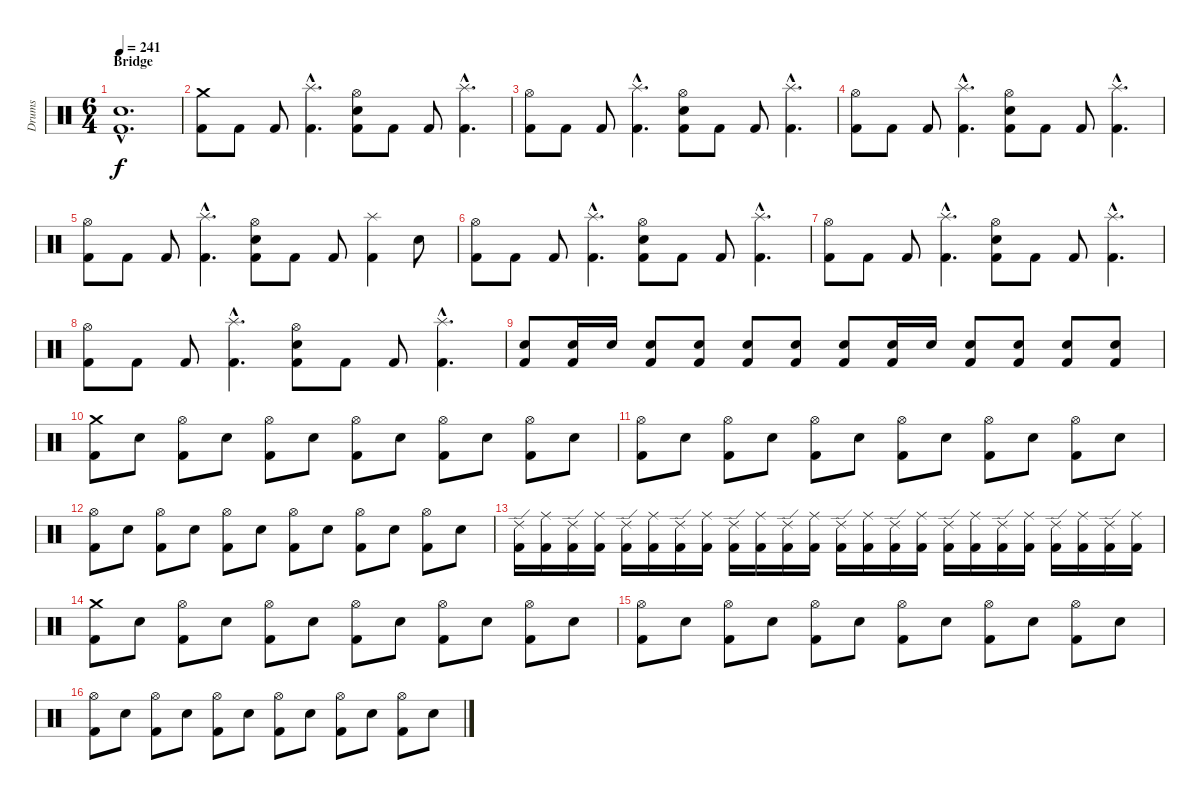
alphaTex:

\track ("Drums" "Drums") {instrument percussion}
\staff {score}
\articulation defaults
\ts (6 4)
\section ("" "Bridge")
\tempo 241
\clef neutral
\ks c
("Electric Snare (hit)"{hac} "Kick (hit) 2"{hac}).1{d dy f} |
("Crash medium (hit)" "Kick (hit) 2").8 "Kick (hit) 2".8 "Kick (hit) 2".8 ("Splash (hit)"{hac} "Kick (hit) 2"{hac}).4{d} ("Hi-Hat (open)" "Electric Snare (hit)" "Kick (hit) 2").8 "Kick (hit) 2".8 "Kick (hit) 2".8 ("Splash (hit)"{hac} "Kick (hit) 2"{hac}).4{d} |
("Hi-Hat (open)" "Kick (hit) 2").8 "Kick (hit) 2".8 "Kick (hit) 2".8 ("Splash (hit)"{hac} "Kick (hit) 2"{hac}).4{d} ("Hi-Hat (open)" "Electric Snare (hit)" "Kick (hit) 2").8 "Kick (hit) 2".8 "Kick (hit) 2".8 ("Splash (hit)"{hac} "Kick (hit) 2"{hac}).4{d} |
("Hi-Hat (open)" "Kick (hit) 2").8 "Kick (hit) 2".8 "Kick (hit) 2".8 ("Splash (hit)"{hac} "Kick (hit) 2"{hac}).4{d} ("Hi-Hat (open)" "Electric Snare (hit)" "Kick (hit) 2").8 "Kick (hit) 2".8 "Kick (hit) 2".8 ("Splash (hit)"{hac} "Kick (hit) 2"{hac}).4{d} |
("Hi-Hat (open)" "Kick (hit) 2").8 "Kick (hit) 2".8 "Kick (hit) 2".8 ("Splash (hit)"{hac} "Kick (hit) 2"{hac}).4{d} ("Hi-Hat (open)" "Electric Snare (hit)" "Kick (hit) 2").8 "Kick (hit) 2".8 "Kick (hit) 2".8 ("Splash (hit)" "Kick (hit) 2").4 "Electric Snare (hit)".8 |
("Hi-Hat (open)" "Kick (hit) 2").8 "Kick (hit) 2".8 "Kick (hit) 2".8 ("Splash (hit)"{hac} "Kick (hit) 2"{hac}).4{d} ("Hi-Hat (open)" "Electric Snare (hit)" "Kick (hit) 2").8 "Kick (hit) 2".8 "Kick (hit) 2".8 ("Splash (hit)"{hac} "Kick (hit) 2"{hac}).4{d} |
("Hi-Hat (open)" "Kick (hit) 2").8 "Kick (hit) 2".8 "Kick (hit) 2".8 ("Splash (hit)"{hac} "Kick (hit) 2"{hac}).4{d} ("Hi-Hat (open)" "Electric Snare (hit)" "Kick (hit) 2").8 "Kick (hit) 2".8 "Kick (hit) 2".8 ("Splash (hit)"{hac} "Kick (hit) 2"{hac}).4{d} |
("Hi-Hat (open)" "Kick (hit) 2").8 "Kick (hit) 2".8 "Kick (hit) 2".8 ("Splash (hit)"{hac} "Kick (hit) 2"{hac}).4{d} ("Hi-Hat (open)" "Electric Snare (hit)" "Kick (hit) 2").8 "Kick (hit) 2".8 "Kick (hit) 2".8 ("Splash (hit)"{hac} "Kick (hit) 2"{hac}).4{d} |
("Electric Snare (hit)" "Kick (hit) 2").8 ("Electric Snare (hit)" "Kick (hit) 2").16 "Electric Snare (hit)".16 ("Electric Snare (hit)" "Kick (hit) 2").8 ("Electric Snare (hit)" "Kick (hit) 2").8 ("Electric Snare (hit)" "Kick (hit) 2").8 ("Electric Snare (hit)" "Kick (hit) 2").8 ("Electric Snare (hit)" "Kick (hit) 2").8 ("Electric Snare (hit)" "Kick (hit) 2").16 "Electric Snare (hit)".16 ("Electric Snare (hit)" "Kick (hit) 2").8 ("Electric Snare (hit)" "Kick (hit) 2").8 ("Electric Snare (hit)" "Kick (hit) 2").8 ("Electric Snare (hit)" "Kick (hit) 2").8 |
("Crash medium (hit)" "Kick (hit) 2").8 "Electric Snare (hit)".8 ("Hi-Hat (open)" "Kick (hit) 2").8 "Electric Snare (hit)".8 ("Hi-Hat (open)" "Kick (hit) 2").8 "Electric Snare (hit)".8 ("Hi-Hat (open)" "Kick (hit) 2").8 "Electric Snare (hit)".8 ("Hi-Hat (open)" "Kick (hit) 2").8 "Electric Snare (hit)".8 ("Hi-Hat (open)" "Kick (hit) 2").8 "Electric Snare (hit)".8 |
("Hi-Hat (open)" "Kick (hit) 2").8 "Electric Snare (hit)".8 ("Hi-Hat (open)" "Kick (hit) 2").8 "Electric Snare (hit)".8 ("Hi-Hat (open)" "Kick (hit) 2").8 "Electric Snare (hit)".8 ("Hi-Hat (open)" "Kick (hit) 2").8 "Electric Snare (hit)".8 ("Hi-Hat (open)" "Kick (hit) 2").8 "Electric Snare (hit)".8 ("Hi-Hat (open)" "Kick (hit) 2").8 "Electric Snare (hit)".8 |
("Hi-Hat (open)" "Kick (hit) 2").8 "Electric Snare (hit)".8 ("Hi-Hat (open)" "Kick (hit) 2").8 "Electric Snare (hit)".8 ("Hi-Hat (open)" "Kick (hit) 2").8 "Electric Snare (hit)".8 ("Hi-Hat (open)" "Kick (hit) 2").8 "Electric Snare (hit)".8 ("Hi-Hat (open)" "Kick (hit) 2").8 "Electric Snare (hit)".8 ("Hi-Hat (open)" "Kick (hit) 2").8 "Electric Snare (hit)".8 |
("Ride (edge) 2" "Kick (hit) 2").16 ("Ride (middle)" "Kick (hit) 2").16 ("Ride (edge) 2" "Kick (hit) 2").16 ("Ride (middle)" "Kick (hit) 2").16 ("Ride (edge) 2" "Kick (hit) 2").16 ("Ride (middle)" "Kick (hit) 2").16 ("Ride (edge) 2" "Kick (hit) 2").16 ("Ride (middle)" "Kick (hit) 2").16 ("Ride (edge) 2" "Kick (hit) 2").16 ("Ride (middle)" "Kick (hit) 2").16 ("Ride (edge) 2" "Kick (hit) 2").16 ("Ride (middle)" "Kick (hit) 2").16 ("Ride (edge) 2" "Kick (hit) 2").16 ("Ride (middle)" "Kick (hit) 2").16 ("Ride (edge) 2" "Kick (hit) 2").16 ("Ride (middle)" "Kick (hit) 2").16 ("Ride (edge) 2" "Kick (hit) 2").16 ("Ride (middle)" "Kick (hit) 2").16 ("Ride (edge) 2" "Kick (hit) 2").16 ("Ride (middle)" "Kick (hit) 2").16 ("Ride (edge) 2" "Kick (hit) 2").16 ("Ride (middle)" "Kick (hit) 2").16 ("Ride (edge) 2" "Kick (hit) 2").16 ("Ride (middle)" "Kick (hit) 2").16 |
("Crash medium (hit)" "Kick (hit) 2").8 "Electric Snare (hit)".8 ("Hi-Hat (open)" "Kick (hit) 2").8 "Electric Snare (hit)".8 ("Hi-Hat (open)" "Kick (hit) 2").8 "Electric Snare (hit)".8 ("Hi-Hat (open)" "Kick (hit) 2").8 "Electric Snare (hit)".8 ("Hi-Hat (open)" "Kick (hit) 2").8 "Electric Snare (hit)".8 ("Hi-Hat (open)" "Kick (hit) 2").8 "Electric Snare (hit)".8 |
("Hi-Hat (open)" "Kick (hit) 2").8 "Electric Snare (hit)".8 ("Hi-Hat (open)" "Kick (hit) 2").8 "Electric Snare (hit)".8 ("Hi-Hat (open)" "Kick (hit) 2").8 "Electric Snare (hit)".8 ("Hi-Hat (open)" "Kick (hit) 2").8 "Electric Snare (hit)".8 ("Hi-Hat (open)" "Kick (hit) 2").8 "Electric Snare (hit)".8 ("Hi-Hat (open)" "Kick (hit) 2").8 "Electric Snare (hit)".8 |
("Hi-Hat (open)" "Kick (hit) 2").8 "Electric Snare (hit)".8 ("Hi-Hat (open)" "Kick (hit) 2").8 "Electric Snare (hit)".8 ("Hi-Hat (open)" "Kick (hit) 2").8 "Electric Snare (hit)".8 ("Hi-Hat (open)" "Kick (hit) 2").8 "Electric Snare (hit)".8 ("Hi-Hat (open)" "Kick (hit) 2").8 "Electric Snare (hit)".8 ("Hi-Hat (open)" "Kick (hit) 2").8 "Electric Snare (hit)".8
